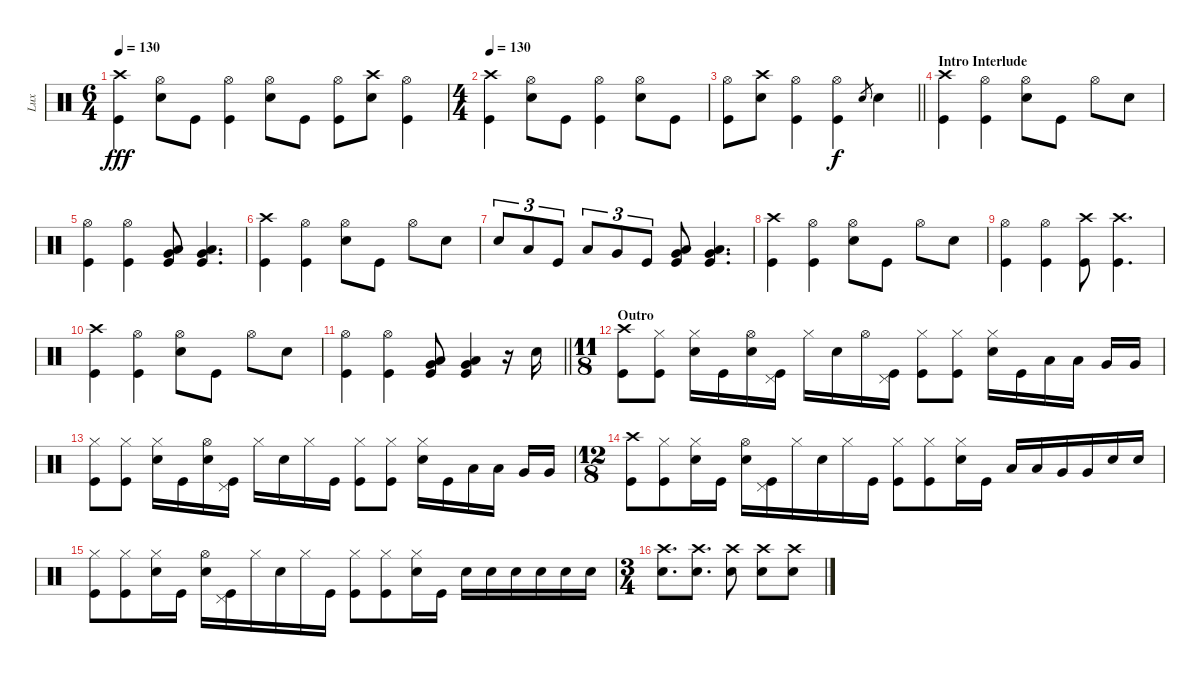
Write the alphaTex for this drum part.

\track ("Lux" "Lux") {instrument percussion}
\staff {score}
\articulation defaults
\ts (6 4)
\tempo 130
\clef neutral
\ks c
("Crash high (hit)" "Kick (hit)").4{dy fff} ("Hi-Hat (open)" "Snare (hit) 2").8 "Kick (hit)".8 ("Hi-Hat (open)" "Kick (hit)").4 ("Hi-Hat (open)" "Snare (hit) 2").8 "Kick (hit)".8 ("Hi-Hat (open)" "Kick (hit)").8 ("Crash high (hit)" "Snare (hit) 2").8 ("Hi-Hat (open)" "Kick (hit)").4 |
\ts (4 4)
\tempo 130
("Crash high (hit)" "Kick (hit)").4 ("Hi-Hat (open)" "Snare (hit) 2").8 "Kick (hit)".8 ("Hi-Hat (open)" "Kick (hit)").4 ("Hi-Hat (open)" "Snare (hit) 2").8 "Kick (hit)".8 |
\barLineRight lightlight
("Hi-Hat (open)" "Kick (hit)").8 ("Crash high (hit)" "Snare (hit) 2").8 ("Hi-Hat (open)" "Kick (hit)").4 ("Hi-Hat (open)" "Kick (hit)").4{dy f} "Snare (hit) 2".8{gr} "Snare (hit) 2".4 |
\section ("" "Intro Interlude")
("Crash high (hit)" "Kick (hit)").4 ("Hi-Hat (open)" "Kick (hit)").4 ("Hi-Hat (open)" "Snare (hit) 2").8 "Kick (hit)".8 "Hi-Hat (open)".8 "Snare (hit) 2".8 |
("Hi-Hat (open)" "Kick (hit)").4 ("Hi-Hat (open)" "Kick (hit)").4 ("Low Floor Tom (hit)" "Very Low Tom (hit)" "Kick (hit)").8 ("Low Floor Tom (hit)" "Very Low Tom (hit)" "Kick (hit)").4{d} |
("Crash high (hit)" "Kick (hit)").4 ("Hi-Hat (open)" "Kick (hit)").4 ("Hi-Hat (open)" "Snare (hit) 2").8 "Kick (hit)".8 "Hi-Hat (open)".8 "Snare (hit) 2".8 |
"Snare (hit) 2".8{tu (3 2)} "Low Tom (hit)".8{tu (3 2)} "Kick (hit)".8{tu (3 2)} "Low Tom (hit)".8{tu (3 2)} "Very Low Tom (hit)".8{tu (3 2)} "Kick (hit)".8{tu (3 2)} ("Low Floor Tom (hit)" "Very Low Tom (hit)" "Kick (hit)").8 ("Low Floor Tom (hit)" "Very Low Tom (hit)" "Kick (hit)").4{d} |
("Crash high (hit)" "Kick (hit)").4 ("Hi-Hat (open)" "Kick (hit)").4 ("Hi-Hat (open)" "Snare (hit) 2").8 "Kick (hit)".8 "Hi-Hat (open)".8 "Snare (hit) 2".8 |
("Hi-Hat (open)" "Kick (hit)").4 ("Hi-Hat (open)" "Kick (hit)").4 ("Crash high (hit)" "Kick (hit)").8 ("Crash high (hit)" "Kick (hit)").4{d} |
("Crash high (hit)" "Kick (hit)").4 ("Hi-Hat (open)" "Kick (hit)").4 ("Hi-Hat (open)" "Snare (hit) 2").8 "Kick (hit)".8 "Hi-Hat (open)".8 "Snare (hit) 2".8 |
\barLineRight lightlight
("Hi-Hat (open)" "Kick (hit)").4 ("Hi-Hat (open)" "Kick (hit)").4 ("Low Floor Tom (hit)" "Very Low Tom (hit)" "Kick (hit)").8 ("Low Floor Tom (hit)" "Very Low Tom (hit)" "Kick (hit)").4 r.16 "Snare (hit) 2".16 |
\ts (11 8)
\section ("" "Outro")
("Crash high (hit)" "Kick (hit)").8 ("Hi-Hat (closed)" "Kick (hit)").8 ("Hi-Hat (closed)" "Snare (hit) 2").16 "Kick (hit)".16 ("Hi-Hat (open)" "Snare (hit) 2").16 ("Pedal Hi-Hat (hit)" "Kick (hit)").16 "Hi-Hat (closed)".16 "Snare (hit) 2".16 "Hi-Hat (open)".16 ("Pedal Hi-Hat (hit)" "Kick (hit)").16 ("Hi-Hat (closed)" "Kick (hit)").8 ("Hi-Hat (closed)" "Kick (hit)").8 ("Hi-Hat (closed)" "Snare (hit) 2").16 "Kick (hit)".16 "Low Tom (hit)".16 "Low Tom (hit)".16 "Very Low Tom (hit)".16 "Very Low Tom (hit)".16 |
("Hi-Hat (closed)" "Kick (hit)").8 ("Hi-Hat (closed)" "Kick (hit)").8 ("Hi-Hat (closed)" "Snare (hit) 2").16 "Kick (hit)".16 ("Hi-Hat (open)" "Snare (hit) 2").16 ("Pedal Hi-Hat (hit)" "Kick (hit)").16 "Hi-Hat (closed)".16 "Snare (hit) 2".16 "Hi-Hat (closed)".16 "Kick (hit)".16 ("Hi-Hat (closed)" "Kick (hit)").8 ("Hi-Hat (closed)" "Kick (hit)").8 ("Hi-Hat (closed)" "Snare (hit) 2").16 "Kick (hit)".16 "Low Tom (hit)".16 "Low Tom (hit)".16 "Very Low Tom (hit)".16 "Very Low Tom (hit)".16 |
\ts (12 8)
("Crash high (hit)" "Kick (hit)").8 ("Hi-Hat (closed)" "Kick (hit)").8 ("Hi-Hat (closed)" "Snare (hit) 2").16 "Kick (hit)".16 ("Hi-Hat (open)" "Snare (hit) 2").16 ("Pedal Hi-Hat (hit)" "Kick (hit)").16 "Hi-Hat (closed)".16 "Snare (hit) 2".16 "Hi-Hat (closed)".16 "Kick (hit)".16 ("Hi-Hat (closed)" "Kick (hit)").8 ("Hi-Hat (closed)" "Kick (hit)").8 ("Hi-Hat (closed)" "Snare (hit) 2").16 "Kick (hit)".16 "Low Tom (hit)".16 "Low Tom (hit)".16 "Very Low Tom (hit)".16 "Very Low Tom (hit)".16 "Snare (hit) 2".16 "Snare (hit) 2".16 |
("Hi-Hat (closed)" "Kick (hit)").8 ("Hi-Hat (closed)" "Kick (hit)").8 ("Hi-Hat (closed)" "Snare (hit) 2").16 "Kick (hit)".16 ("Hi-Hat (open)" "Snare (hit) 2").16 ("Pedal Hi-Hat (hit)" "Kick (hit)").16 "Hi-Hat (closed)".16 "Snare (hit) 2".16 "Hi-Hat (closed)".16 "Kick (hit)".16 ("Hi-Hat (closed)" "Kick (hit)").8 ("Hi-Hat (closed)" "Kick (hit)").8 ("Hi-Hat (closed)" "Snare (hit) 2").16 "Kick (hit)".16 "Snare (hit) 2".16 "Snare (hit) 2".16 "Snare (hit) 2".16 "Snare (hit) 2".16 "Snare (hit) 2".16 "Snare (hit) 2".16 |
\ts (3 4)
("Crash high (hit)" "Snare (hit) 2").8{d} ("Crash high (hit)" "Snare (hit) 2").8{d} ("Crash high (hit)" "Snare (hit) 2").8 ("Crash high (hit)" "Snare (hit) 2").8 ("Crash high (hit)" "Snare (hit) 2").8
